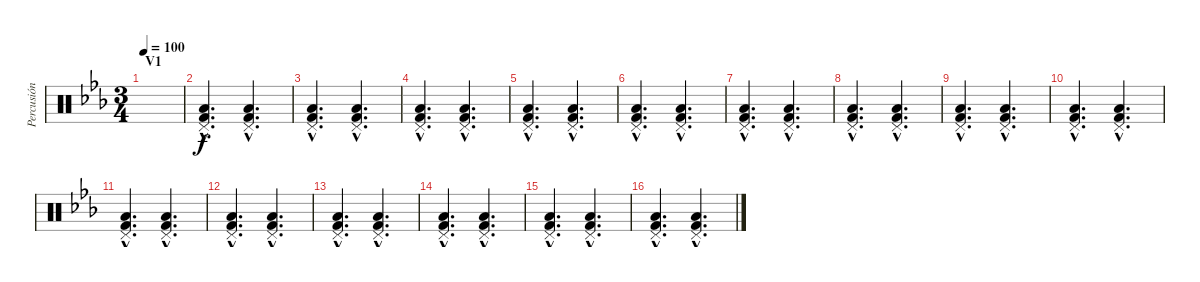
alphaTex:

\track ("Percusión" "Percusión") {instrument percussion}
\staff {score}
\articulation defaults
\ts (3 4)
\section ("" "V1")
\tempo 100
\clef neutral
\ks eb
|
("Kick (hit) 2"{hac} "Low Floor Tom (hit)"{hac} "Pedal Hi-Hat (hit)"{hac}).4{d} ("Kick (hit) 2"{hac} "Low Floor Tom (hit)"{hac} "Pedal Hi-Hat (hit)"{hac}).4{d} |
("Kick (hit) 2"{hac} "Low Floor Tom (hit)"{hac} "Pedal Hi-Hat (hit)"{hac}).4{d} ("Kick (hit) 2"{hac} "Low Floor Tom (hit)"{hac} "Pedal Hi-Hat (hit)"{hac}).4{d} |
("Kick (hit) 2"{hac} "Low Floor Tom (hit)"{hac} "Pedal Hi-Hat (hit)"{hac}).4{d} ("Kick (hit) 2"{hac} "Low Floor Tom (hit)"{hac} "Pedal Hi-Hat (hit)"{hac}).4{d} |
("Kick (hit) 2"{hac} "Low Floor Tom (hit)"{hac} "Pedal Hi-Hat (hit)"{hac}).4{d} ("Kick (hit) 2"{hac} "Low Floor Tom (hit)"{hac} "Pedal Hi-Hat (hit)"{hac}).4{d} |
("Kick (hit) 2"{hac} "Low Floor Tom (hit)"{hac} "Pedal Hi-Hat (hit)"{hac}).4{d} ("Kick (hit) 2"{hac} "Low Floor Tom (hit)"{hac} "Pedal Hi-Hat (hit)"{hac}).4{d} |
("Kick (hit) 2"{hac} "Low Floor Tom (hit)"{hac} "Pedal Hi-Hat (hit)"{hac}).4{d} ("Kick (hit) 2"{hac} "Low Floor Tom (hit)"{hac} "Pedal Hi-Hat (hit)"{hac}).4{d} |
("Kick (hit) 2"{hac} "Low Floor Tom (hit)"{hac} "Pedal Hi-Hat (hit)"{hac}).4{d} ("Kick (hit) 2"{hac} "Low Floor Tom (hit)"{hac} "Pedal Hi-Hat (hit)"{hac}).4{d} |
("Kick (hit) 2"{hac} "Low Floor Tom (hit)"{hac} "Pedal Hi-Hat (hit)"{hac}).4{d} ("Kick (hit) 2"{hac} "Low Floor Tom (hit)"{hac} "Pedal Hi-Hat (hit)"{hac}).4{d} |
("Kick (hit) 2"{hac} "Low Floor Tom (hit)"{hac} "Pedal Hi-Hat (hit)"{hac}).4{d} ("Kick (hit) 2"{hac} "Low Floor Tom (hit)"{hac} "Pedal Hi-Hat (hit)"{hac}).4{d} |
("Kick (hit) 2"{hac} "Low Floor Tom (hit)"{hac} "Pedal Hi-Hat (hit)"{hac}).4{d} ("Kick (hit) 2"{hac} "Low Floor Tom (hit)"{hac} "Pedal Hi-Hat (hit)"{hac}).4{d} |
("Kick (hit) 2"{hac} "Low Floor Tom (hit)"{hac} "Pedal Hi-Hat (hit)"{hac}).4{d} ("Kick (hit) 2"{hac} "Low Floor Tom (hit)"{hac} "Pedal Hi-Hat (hit)"{hac}).4{d} |
("Kick (hit) 2"{hac} "Low Floor Tom (hit)"{hac} "Pedal Hi-Hat (hit)"{hac}).4{d} ("Kick (hit) 2"{hac} "Low Floor Tom (hit)"{hac} "Pedal Hi-Hat (hit)"{hac}).4{d} |
("Kick (hit) 2"{hac} "Low Floor Tom (hit)"{hac} "Pedal Hi-Hat (hit)"{hac}).4{d} ("Kick (hit) 2"{hac} "Low Floor Tom (hit)"{hac} "Pedal Hi-Hat (hit)"{hac}).4{d} |
("Kick (hit) 2"{hac} "Low Floor Tom (hit)"{hac} "Pedal Hi-Hat (hit)"{hac}).4{d} ("Kick (hit) 2"{hac} "Low Floor Tom (hit)"{hac} "Pedal Hi-Hat (hit)"{hac}).4{d} |
("Kick (hit) 2"{hac} "Low Floor Tom (hit)"{hac} "Pedal Hi-Hat (hit)"{hac}).4{d} ("Kick (hit) 2"{hac} "Low Floor Tom (hit)"{hac} "Pedal Hi-Hat (hit)"{hac}).4{d}
